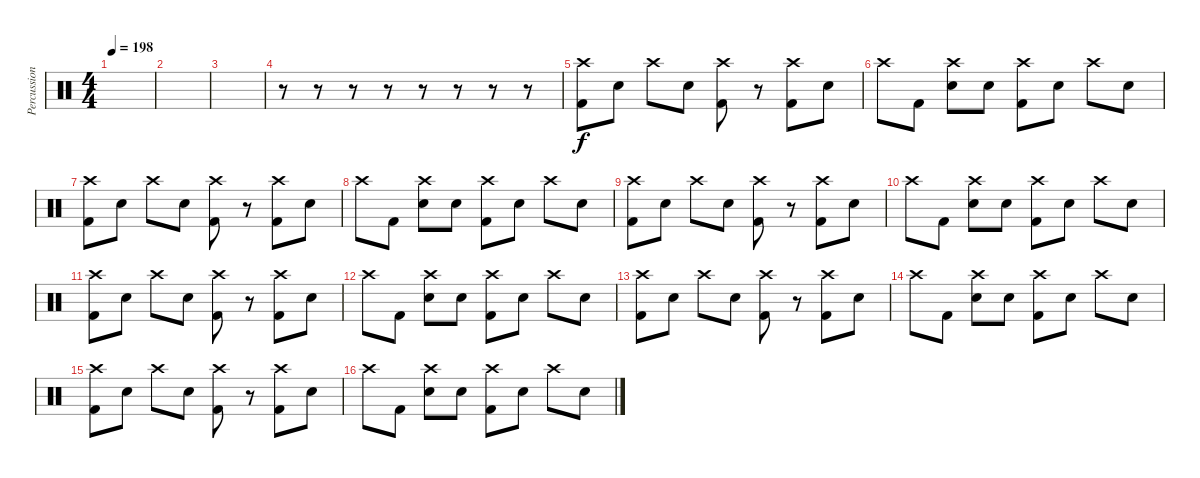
\track ("Percussion" "Percussion") {instrument percussion}
\staff {score}
\articulation defaults
\ts (4 4)
\tempo 198
\clef neutral
\ks c
|
|
|
r.8 r.8 r.8 r.8 r.8 r.8 r.8 r.8 |
("Crash high (hit)" "Kick (hit) 2").8 "Electric Snare (hit)".8 "Crash high (hit)".8 "Electric Snare (hit)".8 ("Crash high (hit)" "Kick (hit) 2").8 r.8 ("Crash high (hit)" "Kick (hit) 2").8 "Electric Snare (hit)".8 |
"Crash high (hit)".8 "Kick (hit) 2".8 ("Crash high (hit)" "Electric Snare (hit)").8 "Electric Snare (hit)".8 ("Crash high (hit)" "Kick (hit) 2").8 "Electric Snare (hit)".8 "Crash high (hit)".8 "Electric Snare (hit)".8 |
("Crash high (hit)" "Kick (hit) 2").8 "Electric Snare (hit)".8 "Crash high (hit)".8 "Electric Snare (hit)".8 ("Crash high (hit)" "Kick (hit) 2").8 r.8 ("Crash high (hit)" "Kick (hit) 2").8 "Electric Snare (hit)".8 |
"Crash high (hit)".8 "Kick (hit) 2".8 ("Crash high (hit)" "Electric Snare (hit)").8 "Electric Snare (hit)".8 ("Crash high (hit)" "Kick (hit) 2").8 "Electric Snare (hit)".8 "Crash high (hit)".8 "Electric Snare (hit)".8 |
("Crash high (hit)" "Kick (hit) 2").8 "Electric Snare (hit)".8 "Crash high (hit)".8 "Electric Snare (hit)".8 ("Crash high (hit)" "Kick (hit) 2").8 r.8 ("Crash high (hit)" "Kick (hit) 2").8 "Electric Snare (hit)".8 |
"Crash high (hit)".8 "Kick (hit) 2".8 ("Crash high (hit)" "Electric Snare (hit)").8 "Electric Snare (hit)".8 ("Crash high (hit)" "Kick (hit) 2").8 "Electric Snare (hit)".8 "Crash high (hit)".8 "Electric Snare (hit)".8 |
("Crash high (hit)" "Kick (hit) 2").8 "Electric Snare (hit)".8 "Crash high (hit)".8 "Electric Snare (hit)".8 ("Crash high (hit)" "Kick (hit) 2").8 r.8 ("Crash high (hit)" "Kick (hit) 2").8 "Electric Snare (hit)".8 |
"Crash high (hit)".8 "Kick (hit) 2".8 ("Crash high (hit)" "Electric Snare (hit)").8 "Electric Snare (hit)".8 ("Crash high (hit)" "Kick (hit) 2").8 "Electric Snare (hit)".8 "Crash high (hit)".8 "Electric Snare (hit)".8 |
("Crash high (hit)" "Kick (hit) 2").8 "Electric Snare (hit)".8 "Crash high (hit)".8 "Electric Snare (hit)".8 ("Crash high (hit)" "Kick (hit) 2").8 r.8 ("Crash high (hit)" "Kick (hit) 2").8 "Electric Snare (hit)".8 |
"Crash high (hit)".8 "Kick (hit) 2".8 ("Crash high (hit)" "Electric Snare (hit)").8 "Electric Snare (hit)".8 ("Crash high (hit)" "Kick (hit) 2").8 "Electric Snare (hit)".8 "Crash high (hit)".8 "Electric Snare (hit)".8 |
("Crash high (hit)" "Kick (hit) 2").8 "Electric Snare (hit)".8 "Crash high (hit)".8 "Electric Snare (hit)".8 ("Crash high (hit)" "Kick (hit) 2").8 r.8 ("Crash high (hit)" "Kick (hit) 2").8 "Electric Snare (hit)".8 |
"Crash high (hit)".8 "Kick (hit) 2".8 ("Crash high (hit)" "Electric Snare (hit)").8 "Electric Snare (hit)".8 ("Crash high (hit)" "Kick (hit) 2").8 "Electric Snare (hit)".8 "Crash high (hit)".8 "Electric Snare (hit)".8
